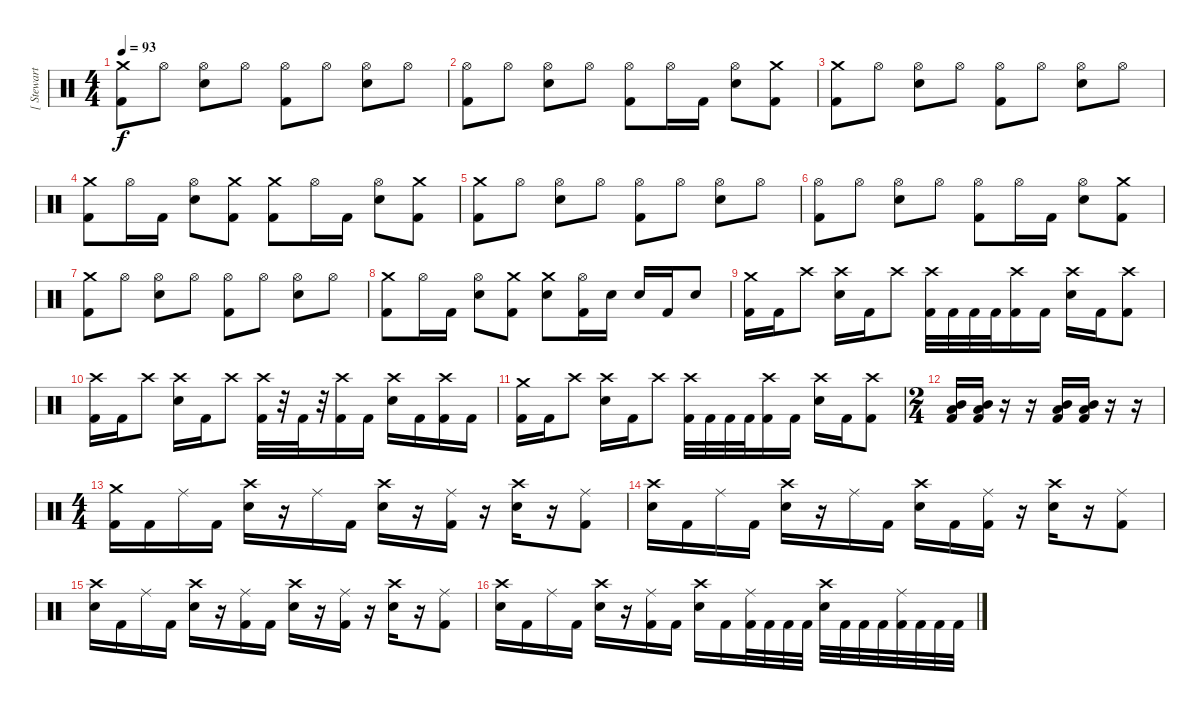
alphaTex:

\track ("[ Stewart ]" "[ Stewart ") {instrument percussion}
\staff {score}
\articulation defaults
\ts (4 4)
\tempo 93
\clef neutral
\ks c
("Kick (hit) 2" "Crash medium (hit)").8{dy f} "Hi-Hat (open)".8 ("Electric Snare (hit)" "Hi-Hat (open)").8 "Hi-Hat (open)".8 ("Kick (hit) 2" "Hi-Hat (open)").8 "Hi-Hat (open)".8 ("Electric Snare (hit)" "Hi-Hat (open)").8 "Hi-Hat (open)".8 |
("Kick (hit) 2" "Hi-Hat (open)").8 "Hi-Hat (open)".8 ("Electric Snare (hit)" "Hi-Hat (open)").8 "Hi-Hat (open)".8 ("Kick (hit) 2" "Hi-Hat (open)").8 "Hi-Hat (open)".16 "Kick (hit) 2".16 ("Electric Snare (hit)" "Hi-Hat (open)").8 ("Kick (hit) 2" "Crash medium (hit)").8 |
("Kick (hit) 2" "Crash medium (hit)").8 "Hi-Hat (open)".8 ("Electric Snare (hit)" "Hi-Hat (open)").8 "Hi-Hat (open)".8 ("Kick (hit) 2" "Hi-Hat (open)").8 "Hi-Hat (open)".8 ("Electric Snare (hit)" "Hi-Hat (open)").8 "Hi-Hat (open)".8 |
("Kick (hit) 2" "Crash medium (hit)").8 "Hi-Hat (open)".16 "Kick (hit) 2".16 ("Electric Snare (hit)" "Hi-Hat (open)").8 ("Kick (hit) 2" "Crash medium (hit)").8 ("Kick (hit) 2" "Crash medium (hit)").8 "Hi-Hat (open)".16 "Kick (hit) 2".16 ("Electric Snare (hit)" "Hi-Hat (open)").8 ("Kick (hit) 2" "Crash medium (hit)").8 |
("Kick (hit) 2" "Crash medium (hit)").8 "Hi-Hat (open)".8 ("Electric Snare (hit)" "Hi-Hat (open)").8 "Hi-Hat (open)".8 ("Kick (hit) 2" "Hi-Hat (open)").8 "Hi-Hat (open)".8 ("Electric Snare (hit)" "Hi-Hat (open)").8 "Hi-Hat (open)".8 |
("Kick (hit) 2" "Hi-Hat (open)").8 "Hi-Hat (open)".8 ("Electric Snare (hit)" "Hi-Hat (open)").8 "Hi-Hat (open)".8 ("Kick (hit) 2" "Hi-Hat (open)").8 "Hi-Hat (open)".16 "Kick (hit) 2".16 ("Electric Snare (hit)" "Hi-Hat (open)").8 ("Kick (hit) 2" "Crash medium (hit)").8 |
("Kick (hit) 2" "Crash medium (hit)").8 "Hi-Hat (open)".8 ("Electric Snare (hit)" "Hi-Hat (open)").8 "Hi-Hat (open)".8 ("Kick (hit) 2" "Hi-Hat (open)").8 "Hi-Hat (open)".8 ("Electric Snare (hit)" "Hi-Hat (open)").8 "Hi-Hat (open)".8 |
("Kick (hit) 2" "Crash medium (hit)").8 "Hi-Hat (open)".16 "Kick (hit) 2".16 ("Electric Snare (hit)" "Hi-Hat (open)").8 ("Kick (hit) 2" "Crash medium (hit)").8 ("Electric Snare (hit)" "Crash medium (hit)").8 ("Kick (hit) 2" "Hi-Hat (open)").16 "Electric Snare (hit)".16 "Electric Snare (hit)".16 "Kick (hit) 2".16 "Electric Snare (hit)".8 |
("Kick (hit) 2" "Crash medium (hit)").16 "Kick (hit) 2".16 "Crash high (hit)".8 ("Electric Snare (hit)" "Crash high (hit)").16 "Kick (hit) 2".16 "Crash high (hit)".8 ("Kick (hit) 2" "Crash high (hit)").32 "Kick (hit) 2".32 "Kick (hit) 2".32 "Kick (hit) 2".32 ("Kick (hit) 2" "Crash high (hit)").16 "Kick (hit) 2".16 ("Electric Snare (hit)" "Crash high (hit)").16 "Kick (hit) 2".16 ("Kick (hit) 2" "Crash high (hit)").8 |
("Kick (hit) 2" "Crash high (hit)").16 "Kick (hit) 2".16 "Crash high (hit)".8 ("Electric Snare (hit)" "Crash high (hit)").16 "Kick (hit) 2".16 "Crash high (hit)".8 ("Kick (hit) 2" "Crash high (hit)").32 r.32 "Kick (hit) 2".32 r.32 ("Kick (hit) 2" "Crash high (hit)").16 "Kick (hit) 2".16 ("Electric Snare (hit)" "Crash high (hit)").16 "Kick (hit) 2".16 ("Kick (hit) 2" "Crash high (hit)").16 "Kick (hit) 2".16 |
("Kick (hit) 2" "Crash medium (hit)").16 "Kick (hit) 2".16 "Crash high (hit)".8 ("Electric Snare (hit)" "Crash high (hit)").16 "Kick (hit) 2".16 "Crash high (hit)".8 ("Kick (hit) 2" "Crash high (hit)").32 "Kick (hit) 2".32 "Kick (hit) 2".32 "Kick (hit) 2".32 ("Kick (hit) 2" "Crash high (hit)").16 "Kick (hit) 2".16 ("Electric Snare (hit)" "Crash high (hit)").16 "Kick (hit) 2".16 ("Kick (hit) 2" "Crash high (hit)").8 |
\ts (2 4)
("Mid Tom (hit)" "Low Tom (hit)" "Kick (hit) 2").16 ("Mid Tom (hit)" "Low Tom (hit)" "Kick (hit) 2").16 r.16 r.16 ("Mid Tom (hit)" "Low Tom (hit)" "Kick (hit) 2").16 ("Mid Tom (hit)" "Low Tom (hit)" "Kick (hit) 2").16 r.16 r.16 |
\ts (4 4)
("Kick (hit) 2" "Crash medium (hit)").16 "Kick (hit) 2".16 "Ride (middle)".16 "Kick (hit) 2".16 ("Electric Snare (hit)" "Crash high (hit)").16 r.16 "Ride (middle)".16 "Kick (hit) 2".16 ("Electric Snare (hit)" "Crash high (hit)").16 r.16 ("Kick (hit) 2" "Ride (middle)").16 r.16 ("Electric Snare (hit)" "Crash high (hit)").16 r.16 ("Kick (hit) 2" "Ride (middle)").8 |
("Electric Snare (hit)" "Crash high (hit)").16 "Kick (hit) 2".16 "Ride (middle)".16 "Kick (hit) 2".16 ("Electric Snare (hit)" "Crash high (hit)").16 r.16 "Ride (middle)".16 "Kick (hit) 2".16 ("Electric Snare (hit)" "Crash high (hit)").16 "Kick (hit) 2".16 ("Kick (hit) 2" "Ride (middle)").16 r.16 ("Electric Snare (hit)" "Crash high (hit)").16 r.16 ("Kick (hit) 2" "Ride (middle)").8 |
("Electric Snare (hit)" "Crash high (hit)").16 "Kick (hit) 2".16 "Ride (middle)".16 "Kick (hit) 2".16 ("Electric Snare (hit)" "Crash high (hit)").16 r.16 ("Kick (hit) 2" "Ride (middle)").16 "Kick (hit) 2".16 ("Electric Snare (hit)" "Crash high (hit)").16 r.16 ("Kick (hit) 2" "Ride (middle)").16 r.16 ("Electric Snare (hit)" "Crash high (hit)").16 r.16 ("Kick (hit) 2" "Ride (middle)").8 |
("Electric Snare (hit)" "Crash high (hit)").16 "Kick (hit) 2".16 "Ride (middle)".16 "Kick (hit) 2".16 ("Electric Snare (hit)" "Crash high (hit)").16 r.16 ("Kick (hit) 2" "Ride (middle)").16 "Kick (hit) 2".16 ("Electric Snare (hit)" "Crash high (hit)").16 "Kick (hit) 2".16 ("Kick (hit) 2" "Ride (middle)").32 "Kick (hit) 2".32 "Kick (hit) 2".32 "Kick (hit) 2".32 ("Electric Snare (hit)" "Crash high (hit)").32 "Kick (hit) 2".32 "Kick (hit) 2".32 "Kick (hit) 2".32 ("Kick (hit) 2" "Ride (middle)").32 "Kick (hit) 2".32 "Kick (hit) 2".32 "Kick (hit) 2".32
